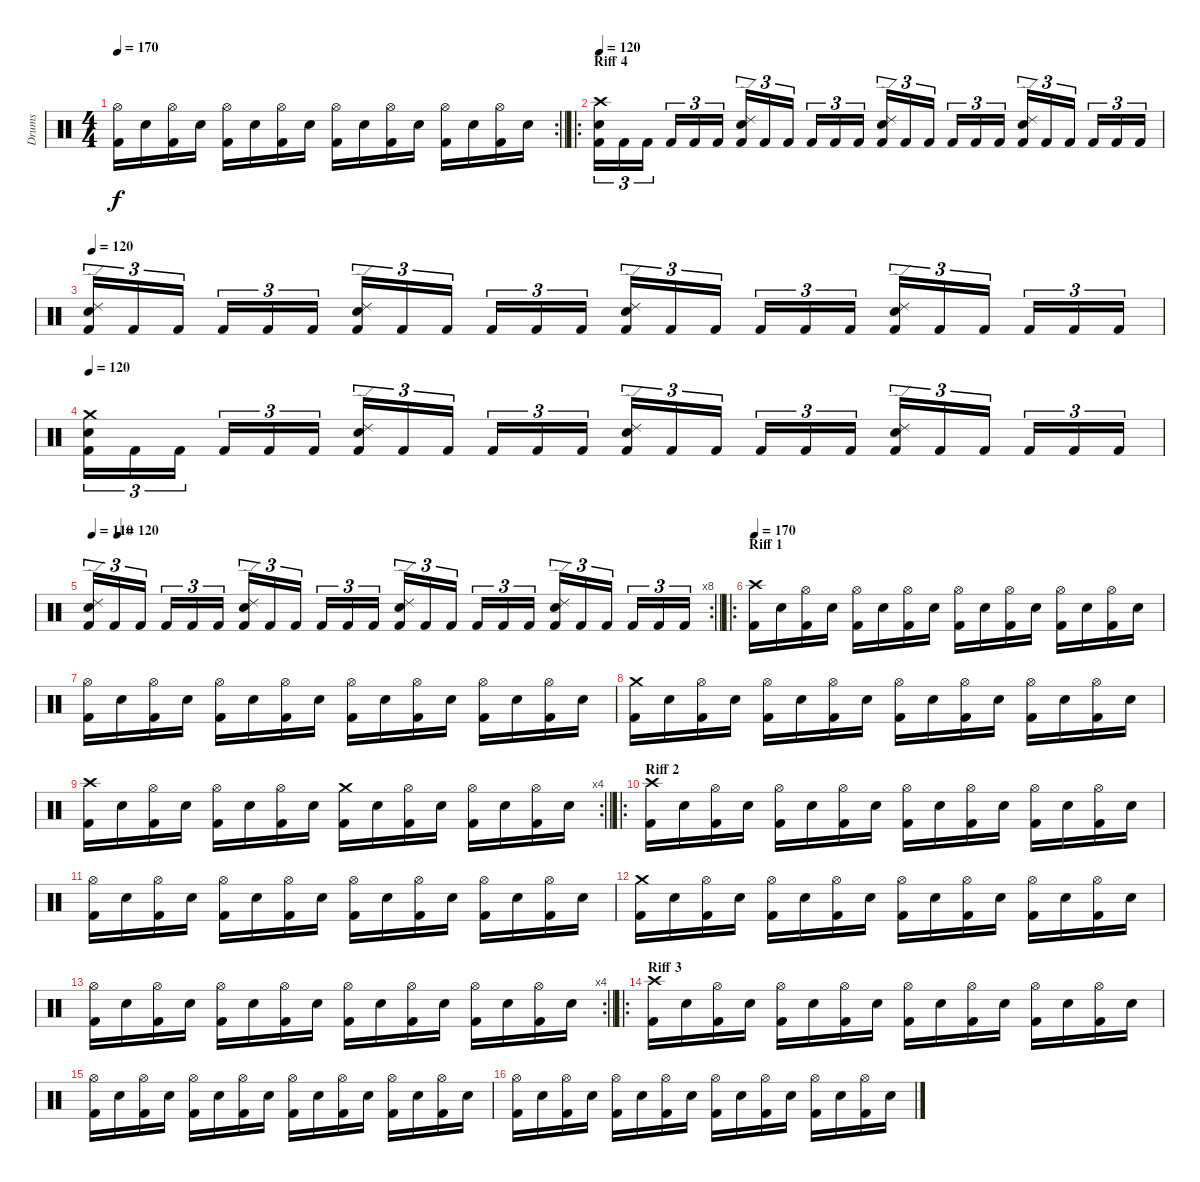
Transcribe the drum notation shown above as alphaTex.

\track ("Drums" "Drums") {instrument percussion}
\staff {score}
\articulation defaults
\rc 2
\ts (4 4)
\tempo 170
\clef neutral
\barLineRight lightlight
\ks c
("Hi-Hat (open)" "Kick (hit) 2").16{dy f} "Electric Snare (hit)".16 ("Hi-Hat (open)" "Kick (hit) 2").16 "Electric Snare (hit)".16 ("Hi-Hat (open)" "Kick (hit) 2").16 "Electric Snare (hit)".16 ("Hi-Hat (open)" "Kick (hit) 2").16 "Electric Snare (hit)".16 ("Hi-Hat (open)" "Kick (hit) 2").16 "Electric Snare (hit)".16 ("Hi-Hat (open)" "Kick (hit) 2").16 "Electric Snare (hit)".16 ("Hi-Hat (open)" "Kick (hit) 2").16 "Electric Snare (hit)".16 ("Hi-Hat (open)" "Kick (hit) 2").16 "Electric Snare (hit)".16 |
\ro
\section ("" "Riff 4")
\tempo 120
("Crash high (hit)" "Electric Snare (hit)" "Kick (hit) 2").16{tu (3 2)} "Kick (hit) 2".16{tu (3 2)} "Kick (hit) 2".16{tu (3 2) beam splitsecondary} "Kick (hit) 2".16{tu (3 2)} "Kick (hit) 2".16{tu (3 2)} "Kick (hit) 2".16{tu (3 2)} ("Ride (edge) 2" "Electric Snare (hit)" "Kick (hit) 2").16{tu (3 2)} "Kick (hit) 2".16{tu (3 2)} "Kick (hit) 2".16{tu (3 2) beam splitsecondary} "Kick (hit) 2".16{tu (3 2)} "Kick (hit) 2".16{tu (3 2)} "Kick (hit) 2".16{tu (3 2)} ("Ride (edge) 2" "Electric Snare (hit)" "Kick (hit) 2").16{tu (3 2)} "Kick (hit) 2".16{tu (3 2)} "Kick (hit) 2".16{tu (3 2) beam splitsecondary} "Kick (hit) 2".16{tu (3 2)} "Kick (hit) 2".16{tu (3 2)} "Kick (hit) 2".16{tu (3 2)} ("Ride (edge) 2" "Electric Snare (hit)" "Kick (hit) 2").16{tu (3 2)} "Kick (hit) 2".16{tu (3 2)} "Kick (hit) 2".16{tu (3 2) beam splitsecondary} "Kick (hit) 2".16{tu (3 2)} "Kick (hit) 2".16{tu (3 2)} "Kick (hit) 2".16{tu (3 2)} |
\tempo 110
\tempo 120
("Ride (edge) 2" "Electric Snare (hit)" "Kick (hit) 2").16{tu (3 2)} "Kick (hit) 2".16{tu (3 2)} "Kick (hit) 2".16{tu (3 2) beam splitsecondary} "Kick (hit) 2".16{tu (3 2)} "Kick (hit) 2".16{tu (3 2)} "Kick (hit) 2".16{tu (3 2)} ("Ride (edge) 2" "Electric Snare (hit)" "Kick (hit) 2").16{tu (3 2)} "Kick (hit) 2".16{tu (3 2)} "Kick (hit) 2".16{tu (3 2) beam splitsecondary} "Kick (hit) 2".16{tu (3 2)} "Kick (hit) 2".16{tu (3 2)} "Kick (hit) 2".16{tu (3 2)} ("Ride (edge) 2" "Electric Snare (hit)" "Kick (hit) 2").16{tu (3 2)} "Kick (hit) 2".16{tu (3 2)} "Kick (hit) 2".16{tu (3 2) beam splitsecondary} "Kick (hit) 2".16{tu (3 2)} "Kick (hit) 2".16{tu (3 2)} "Kick (hit) 2".16{tu (3 2)} ("Ride (edge) 2" "Electric Snare (hit)" "Kick (hit) 2").16{tu (3 2)} "Kick (hit) 2".16{tu (3 2)} "Kick (hit) 2".16{tu (3 2) beam splitsecondary} "Kick (hit) 2".16{tu (3 2)} "Kick (hit) 2".16{tu (3 2)} "Kick (hit) 2".16{tu (3 2)} |
\tempo 110
\tempo 120
("Crash medium (hit)" "Electric Snare (hit)" "Kick (hit) 2").16{tu (3 2)} "Kick (hit) 2".16{tu (3 2)} "Kick (hit) 2".16{tu (3 2) beam splitsecondary} "Kick (hit) 2".16{tu (3 2)} "Kick (hit) 2".16{tu (3 2)} "Kick (hit) 2".16{tu (3 2)} ("Ride (edge) 2" "Electric Snare (hit)" "Kick (hit) 2").16{tu (3 2)} "Kick (hit) 2".16{tu (3 2)} "Kick (hit) 2".16{tu (3 2) beam splitsecondary} "Kick (hit) 2".16{tu (3 2)} "Kick (hit) 2".16{tu (3 2)} "Kick (hit) 2".16{tu (3 2)} ("Ride (edge) 2" "Electric Snare (hit)" "Kick (hit) 2").16{tu (3 2)} "Kick (hit) 2".16{tu (3 2)} "Kick (hit) 2".16{tu (3 2) beam splitsecondary} "Kick (hit) 2".16{tu (3 2)} "Kick (hit) 2".16{tu (3 2)} "Kick (hit) 2".16{tu (3 2)} ("Ride (edge) 2" "Electric Snare (hit)" "Kick (hit) 2").16{tu (3 2)} "Kick (hit) 2".16{tu (3 2)} "Kick (hit) 2".16{tu (3 2) beam splitsecondary} "Kick (hit) 2".16{tu (3 2)} "Kick (hit) 2".16{tu (3 2)} "Kick (hit) 2".16{tu (3 2)} |
\rc 8
\tempo 110
\tempo (120 0.041666666666666664)
\barLineRight lightlight
("Ride (edge) 2" "Electric Snare (hit)" "Kick (hit) 2").16{tu (3 2)} "Kick (hit) 2".16{tu (3 2)} "Kick (hit) 2".16{tu (3 2) beam splitsecondary} "Kick (hit) 2".16{tu (3 2)} "Kick (hit) 2".16{tu (3 2)} "Kick (hit) 2".16{tu (3 2)} ("Ride (edge) 2" "Electric Snare (hit)" "Kick (hit) 2").16{tu (3 2)} "Kick (hit) 2".16{tu (3 2)} "Kick (hit) 2".16{tu (3 2) beam splitsecondary} "Kick (hit) 2".16{tu (3 2)} "Kick (hit) 2".16{tu (3 2)} "Kick (hit) 2".16{tu (3 2)} ("Ride (edge) 2" "Electric Snare (hit)" "Kick (hit) 2").16{tu (3 2)} "Kick (hit) 2".16{tu (3 2)} "Kick (hit) 2".16{tu (3 2) beam splitsecondary} "Kick (hit) 2".16{tu (3 2)} "Kick (hit) 2".16{tu (3 2)} "Kick (hit) 2".16{tu (3 2)} ("Ride (edge) 2" "Electric Snare (hit)" "Kick (hit) 2").16{tu (3 2)} "Kick (hit) 2".16{tu (3 2)} "Kick (hit) 2".16{tu (3 2) beam splitsecondary} "Kick (hit) 2".16{tu (3 2)} "Kick (hit) 2".16{tu (3 2)} "Kick (hit) 2".16{tu (3 2)} |
\ro
\section ("" "Riff 1")
\tempo 170
("Crash high (hit)" "Kick (hit) 2").16 "Electric Snare (hit)".16 ("Hi-Hat (open)" "Kick (hit) 2").16 "Electric Snare (hit)".16 ("Hi-Hat (open)" "Kick (hit) 2").16 "Electric Snare (hit)".16 ("Hi-Hat (open)" "Kick (hit) 2").16 "Electric Snare (hit)".16 ("Hi-Hat (open)" "Kick (hit) 2").16 "Electric Snare (hit)".16 ("Hi-Hat (open)" "Kick (hit) 2").16 "Electric Snare (hit)".16 ("Hi-Hat (open)" "Kick (hit) 2").16 "Electric Snare (hit)".16 ("Hi-Hat (open)" "Kick (hit) 2").16 "Electric Snare (hit)".16 |
("Hi-Hat (open)" "Kick (hit) 2").16 "Electric Snare (hit)".16 ("Hi-Hat (open)" "Kick (hit) 2").16 "Electric Snare (hit)".16 ("Hi-Hat (open)" "Kick (hit) 2").16 "Electric Snare (hit)".16 ("Hi-Hat (open)" "Kick (hit) 2").16 "Electric Snare (hit)".16 ("Hi-Hat (open)" "Kick (hit) 2").16 "Electric Snare (hit)".16 ("Hi-Hat (open)" "Kick (hit) 2").16 "Electric Snare (hit)".16 ("Hi-Hat (open)" "Kick (hit) 2").16 "Electric Snare (hit)".16 ("Hi-Hat (open)" "Kick (hit) 2").16 "Electric Snare (hit)".16 |
("Crash medium (hit)" "Kick (hit) 2").16 "Electric Snare (hit)".16 ("Hi-Hat (open)" "Kick (hit) 2").16 "Electric Snare (hit)".16 ("Hi-Hat (open)" "Kick (hit) 2").16 "Electric Snare (hit)".16 ("Hi-Hat (open)" "Kick (hit) 2").16 "Electric Snare (hit)".16 ("Hi-Hat (open)" "Kick (hit) 2").16 "Electric Snare (hit)".16 ("Hi-Hat (open)" "Kick (hit) 2").16 "Electric Snare (hit)".16 ("Hi-Hat (open)" "Kick (hit) 2").16 "Electric Snare (hit)".16 ("Hi-Hat (open)" "Kick (hit) 2").16 "Electric Snare (hit)".16 |
\rc 4
\barLineRight lightlight
("Crash high (hit)" "Kick (hit) 2").16 "Electric Snare (hit)".16 ("Hi-Hat (open)" "Kick (hit) 2").16 "Electric Snare (hit)".16 ("Hi-Hat (open)" "Kick (hit) 2").16 "Electric Snare (hit)".16 ("Hi-Hat (open)" "Kick (hit) 2").16 "Electric Snare (hit)".16 ("Crash medium (hit)" "Kick (hit) 2").16 "Electric Snare (hit)".16 ("Hi-Hat (open)" "Kick (hit) 2").16 "Electric Snare (hit)".16 ("Hi-Hat (open)" "Kick (hit) 2").16 "Electric Snare (hit)".16 ("Hi-Hat (open)" "Kick (hit) 2").16 "Electric Snare (hit)".16 |
\ro
\section ("" "Riff 2")
("Crash high (hit)" "Kick (hit) 2").16 "Electric Snare (hit)".16 ("Hi-Hat (open)" "Kick (hit) 2").16 "Electric Snare (hit)".16 ("Hi-Hat (open)" "Kick (hit) 2").16 "Electric Snare (hit)".16 ("Hi-Hat (open)" "Kick (hit) 2").16 "Electric Snare (hit)".16 ("Hi-Hat (open)" "Kick (hit) 2").16 "Electric Snare (hit)".16 ("Hi-Hat (open)" "Kick (hit) 2").16 "Electric Snare (hit)".16 ("Hi-Hat (open)" "Kick (hit) 2").16 "Electric Snare (hit)".16 ("Hi-Hat (open)" "Kick (hit) 2").16 "Electric Snare (hit)".16 |
("Hi-Hat (open)" "Kick (hit) 2").16 "Electric Snare (hit)".16 ("Hi-Hat (open)" "Kick (hit) 2").16 "Electric Snare (hit)".16 ("Hi-Hat (open)" "Kick (hit) 2").16 "Electric Snare (hit)".16 ("Hi-Hat (open)" "Kick (hit) 2").16 "Electric Snare (hit)".16 ("Hi-Hat (open)" "Kick (hit) 2").16 "Electric Snare (hit)".16 ("Hi-Hat (open)" "Kick (hit) 2").16 "Electric Snare (hit)".16 ("Hi-Hat (open)" "Kick (hit) 2").16 "Electric Snare (hit)".16 ("Hi-Hat (open)" "Kick (hit) 2").16 "Electric Snare (hit)".16 |
("Crash medium (hit)" "Kick (hit) 2").16 "Electric Snare (hit)".16 ("Hi-Hat (open)" "Kick (hit) 2").16 "Electric Snare (hit)".16 ("Hi-Hat (open)" "Kick (hit) 2").16 "Electric Snare (hit)".16 ("Hi-Hat (open)" "Kick (hit) 2").16 "Electric Snare (hit)".16 ("Hi-Hat (open)" "Kick (hit) 2").16 "Electric Snare (hit)".16 ("Hi-Hat (open)" "Kick (hit) 2").16 "Electric Snare (hit)".16 ("Hi-Hat (open)" "Kick (hit) 2").16 "Electric Snare (hit)".16 ("Hi-Hat (open)" "Kick (hit) 2").16 "Electric Snare (hit)".16 |
\rc 4
\barLineRight lightlight
("Hi-Hat (open)" "Kick (hit) 2").16 "Electric Snare (hit)".16 ("Hi-Hat (open)" "Kick (hit) 2").16 "Electric Snare (hit)".16 ("Hi-Hat (open)" "Kick (hit) 2").16 "Electric Snare (hit)".16 ("Hi-Hat (open)" "Kick (hit) 2").16 "Electric Snare (hit)".16 ("Hi-Hat (open)" "Kick (hit) 2").16 "Electric Snare (hit)".16 ("Hi-Hat (open)" "Kick (hit) 2").16 "Electric Snare (hit)".16 ("Hi-Hat (open)" "Kick (hit) 2").16 "Electric Snare (hit)".16 ("Hi-Hat (open)" "Kick (hit) 2").16 "Electric Snare (hit)".16 |
\ro
\section ("" "Riff 3")
("Crash high (hit)" "Kick (hit) 2").16 "Electric Snare (hit)".16 ("Hi-Hat (open)" "Kick (hit) 2").16 "Electric Snare (hit)".16 ("Hi-Hat (open)" "Kick (hit) 2").16 "Electric Snare (hit)".16 ("Hi-Hat (open)" "Kick (hit) 2").16 "Electric Snare (hit)".16 ("Hi-Hat (open)" "Kick (hit) 2").16 "Electric Snare (hit)".16 ("Hi-Hat (open)" "Kick (hit) 2").16 "Electric Snare (hit)".16 ("Hi-Hat (open)" "Kick (hit) 2").16 "Electric Snare (hit)".16 ("Hi-Hat (open)" "Kick (hit) 2").16 "Electric Snare (hit)".16 |
("Hi-Hat (open)" "Kick (hit) 2").16 "Electric Snare (hit)".16 ("Hi-Hat (open)" "Kick (hit) 2").16 "Electric Snare (hit)".16 ("Hi-Hat (open)" "Kick (hit) 2").16 "Electric Snare (hit)".16 ("Hi-Hat (open)" "Kick (hit) 2").16 "Electric Snare (hit)".16 ("Hi-Hat (open)" "Kick (hit) 2").16 "Electric Snare (hit)".16 ("Hi-Hat (open)" "Kick (hit) 2").16 "Electric Snare (hit)".16 ("Hi-Hat (open)" "Kick (hit) 2").16 "Electric Snare (hit)".16 ("Hi-Hat (open)" "Kick (hit) 2").16 "Electric Snare (hit)".16 |
("Hi-Hat (open)" "Kick (hit) 2").16 "Electric Snare (hit)".16 ("Hi-Hat (open)" "Kick (hit) 2").16 "Electric Snare (hit)".16 ("Hi-Hat (open)" "Kick (hit) 2").16 "Electric Snare (hit)".16 ("Hi-Hat (open)" "Kick (hit) 2").16 "Electric Snare (hit)".16 ("Hi-Hat (open)" "Kick (hit) 2").16 "Electric Snare (hit)".16 ("Hi-Hat (open)" "Kick (hit) 2").16 "Electric Snare (hit)".16 ("Hi-Hat (open)" "Kick (hit) 2").16 "Electric Snare (hit)".16 ("Hi-Hat (open)" "Kick (hit) 2").16 "Electric Snare (hit)".16
